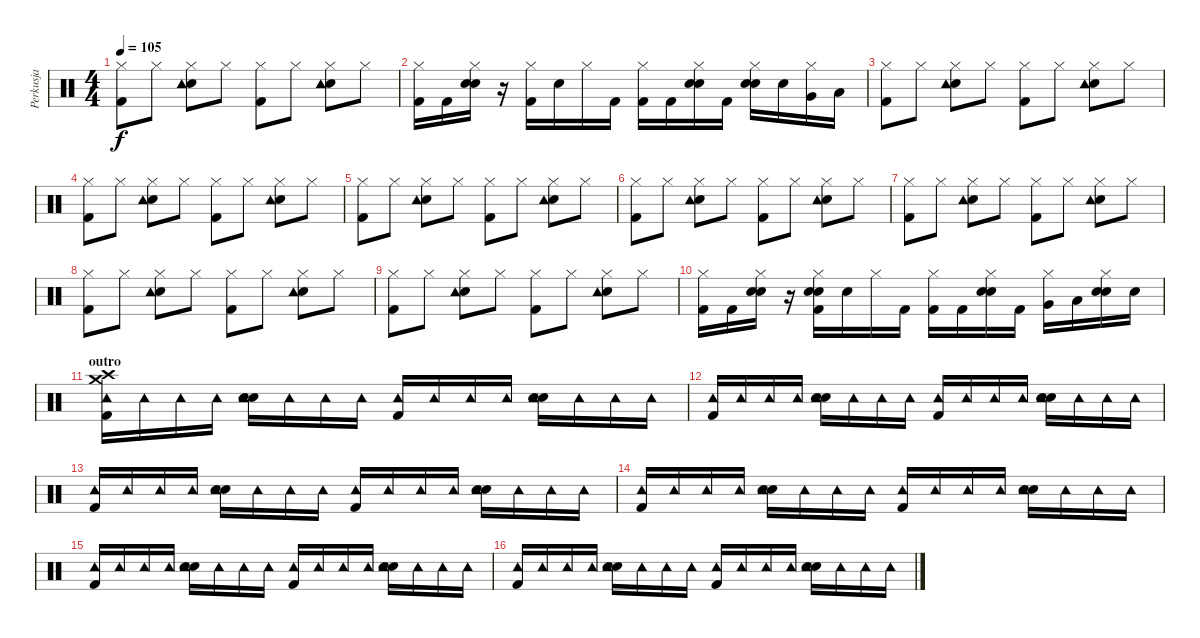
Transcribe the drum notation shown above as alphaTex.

\track ("Perkusja" "Perkusja") {instrument percussion}
\staff {score}
\articulation defaults
\ts (4 4)
\tempo 105
\clef neutral
\ks c
("Kick (hit) 2" "Hi-Hat (closed)").8{dy f} "Hi-Hat (closed)".8 ("Electric Snare (hit)" "Tambourine (hit)" "Hi-Hat (closed)").8 "Hi-Hat (closed)".8 ("Kick (hit) 2" "Hi-Hat (closed)").8 "Hi-Hat (closed)".8 ("Electric Snare (hit)" "Tambourine (hit)" "Hi-Hat (closed)").8 "Hi-Hat (closed)".8 |
("Kick (hit) 2" "Hi-Hat (closed)").16 "Kick (hit) 2".16 ("Electric Snare (hit)" "Snare (hit) 2" "Hi-Hat (closed)").16 r.16 ("Kick (hit) 2" "Hi-Hat (closed)").16 "Electric Snare (hit)".16 "Hi-Hat (closed)".16 "Kick (hit) 2".16 ("Kick (hit) 2" "Hi-Hat (closed)").16 "Kick (hit) 2".16 ("Electric Snare (hit)" "Snare (hit) 2" "Hi-Hat (closed)").16 "Kick (hit) 2".16 ("Electric Snare (hit)" "Snare (hit) 2" "Hi-Hat (closed)").16 "Electric Snare (hit)".16 ("Very Low Tom (hit)" "Hi-Hat (closed)").16 "Low Floor Tom (hit)".16 |
("Kick (hit) 2" "Hi-Hat (closed)").8 "Hi-Hat (closed)".8 ("Electric Snare (hit)" "Tambourine (hit)" "Hi-Hat (closed)").8 "Hi-Hat (closed)".8 ("Kick (hit) 2" "Hi-Hat (closed)").8 "Hi-Hat (closed)".8 ("Electric Snare (hit)" "Tambourine (hit)" "Hi-Hat (closed)").8 "Hi-Hat (closed)".8 |
("Kick (hit) 2" "Hi-Hat (closed)").8 "Hi-Hat (closed)".8 ("Electric Snare (hit)" "Tambourine (hit)" "Hi-Hat (closed)").8 "Hi-Hat (closed)".8 ("Kick (hit) 2" "Hi-Hat (closed)").8 "Hi-Hat (closed)".8 ("Electric Snare (hit)" "Tambourine (hit)" "Hi-Hat (closed)").8 "Hi-Hat (closed)".8 |
("Kick (hit) 2" "Hi-Hat (closed)").8 "Hi-Hat (closed)".8 ("Electric Snare (hit)" "Tambourine (hit)" "Hi-Hat (closed)").8 "Hi-Hat (closed)".8 ("Kick (hit) 2" "Hi-Hat (closed)").8 "Hi-Hat (closed)".8 ("Electric Snare (hit)" "Tambourine (hit)" "Hi-Hat (closed)").8 "Hi-Hat (closed)".8 |
("Kick (hit) 2" "Hi-Hat (closed)").8 "Hi-Hat (closed)".8 ("Electric Snare (hit)" "Tambourine (hit)" "Hi-Hat (closed)").8 "Hi-Hat (closed)".8 ("Kick (hit) 2" "Hi-Hat (closed)").8 "Hi-Hat (closed)".8 ("Electric Snare (hit)" "Tambourine (hit)" "Hi-Hat (closed)").8 "Hi-Hat (closed)".8 |
("Kick (hit) 2" "Hi-Hat (closed)").8 "Hi-Hat (closed)".8 ("Electric Snare (hit)" "Tambourine (hit)" "Hi-Hat (closed)").8 "Hi-Hat (closed)".8 ("Kick (hit) 2" "Hi-Hat (closed)").8 "Hi-Hat (closed)".8 ("Electric Snare (hit)" "Tambourine (hit)" "Hi-Hat (closed)").8 "Hi-Hat (closed)".8 |
("Kick (hit) 2" "Hi-Hat (closed)").8 "Hi-Hat (closed)".8 ("Electric Snare (hit)" "Tambourine (hit)" "Hi-Hat (closed)").8 "Hi-Hat (closed)".8 ("Kick (hit) 2" "Hi-Hat (closed)").8 "Hi-Hat (closed)".8 ("Electric Snare (hit)" "Tambourine (hit)" "Hi-Hat (closed)").8 "Hi-Hat (closed)".8 |
("Kick (hit) 2" "Hi-Hat (closed)").8 "Hi-Hat (closed)".8 ("Electric Snare (hit)" "Tambourine (hit)" "Hi-Hat (closed)").8 "Hi-Hat (closed)".8 ("Kick (hit) 2" "Hi-Hat (closed)").8 "Hi-Hat (closed)".8 ("Electric Snare (hit)" "Tambourine (hit)" "Hi-Hat (closed)").8 "Hi-Hat (closed)".8 |
("Kick (hit) 2" "Hi-Hat (closed)").16 "Kick (hit) 2".16 ("Electric Snare (hit)" "Snare (hit) 2" "Hi-Hat (closed)").16 r.16 ("Electric Snare (hit)" "Snare (hit) 2" "Kick (hit) 2" "Hi-Hat (closed)").16 "Electric Snare (hit)".16 "Hi-Hat (closed)".16 "Kick (hit) 2".16 ("Kick (hit) 2" "Hi-Hat (closed)").16 "Kick (hit) 2".16 ("Electric Snare (hit)" "Snare (hit) 2" "Hi-Hat (closed)").16 "Kick (hit) 2".16 ("Very Low Tom (hit)" "Hi-Hat (closed)").16 "Low Floor Tom (hit)".16 ("Electric Snare (hit)" "Snare (hit) 2" "Hi-Hat (closed)").16 "Electric Snare (hit)".16 |
\section ("" "outro")
("Crash medium (hit)" "Crash high (hit)" "Kick (hit) 2" "Tambourine (hit)").16 "Tambourine (hit)".16 "Tambourine (hit)".16 "Tambourine (hit)".16 ("Electric Snare (hit)" "Snare (hit) 2" "Tambourine (hit)").16 "Tambourine (hit)".16 "Tambourine (hit)".16 "Tambourine (hit)".16 ("Kick (hit) 2" "Tambourine (hit)").16 "Tambourine (hit)".16 "Tambourine (hit)".16 "Tambourine (hit)".16 ("Electric Snare (hit)" "Snare (hit) 2" "Tambourine (hit)").16 "Tambourine (hit)".16 "Tambourine (hit)".16 "Tambourine (hit)".16 |
("Kick (hit) 2" "Tambourine (hit)").16 "Tambourine (hit)".16 "Tambourine (hit)".16 "Tambourine (hit)".16 ("Electric Snare (hit)" "Snare (hit) 2" "Tambourine (hit)").16 "Tambourine (hit)".16 "Tambourine (hit)".16 "Tambourine (hit)".16 ("Kick (hit) 2" "Tambourine (hit)").16 "Tambourine (hit)".16 "Tambourine (hit)".16 "Tambourine (hit)".16 ("Electric Snare (hit)" "Snare (hit) 2" "Tambourine (hit)").16 "Tambourine (hit)".16 "Tambourine (hit)".16 "Tambourine (hit)".16 |
("Kick (hit) 2" "Tambourine (hit)").16 "Tambourine (hit)".16 "Tambourine (hit)".16 "Tambourine (hit)".16 ("Electric Snare (hit)" "Snare (hit) 2" "Tambourine (hit)").16 "Tambourine (hit)".16 "Tambourine (hit)".16 "Tambourine (hit)".16 ("Kick (hit) 2" "Tambourine (hit)").16 "Tambourine (hit)".16 "Tambourine (hit)".16 "Tambourine (hit)".16 ("Electric Snare (hit)" "Snare (hit) 2" "Tambourine (hit)").16 "Tambourine (hit)".16 "Tambourine (hit)".16 "Tambourine (hit)".16 |
("Kick (hit) 2" "Tambourine (hit)").16 "Tambourine (hit)".16 "Tambourine (hit)".16 "Tambourine (hit)".16 ("Electric Snare (hit)" "Snare (hit) 2" "Tambourine (hit)").16 "Tambourine (hit)".16 "Tambourine (hit)".16 "Tambourine (hit)".16 ("Kick (hit) 2" "Tambourine (hit)").16 "Tambourine (hit)".16 "Tambourine (hit)".16 "Tambourine (hit)".16 ("Electric Snare (hit)" "Snare (hit) 2" "Tambourine (hit)").16 "Tambourine (hit)".16 "Tambourine (hit)".16 "Tambourine (hit)".16 |
("Kick (hit) 2" "Tambourine (hit)").16 "Tambourine (hit)".16 "Tambourine (hit)".16 "Tambourine (hit)".16 ("Electric Snare (hit)" "Snare (hit) 2" "Tambourine (hit)").16 "Tambourine (hit)".16 "Tambourine (hit)".16 "Tambourine (hit)".16 ("Kick (hit) 2" "Tambourine (hit)").16 "Tambourine (hit)".16 "Tambourine (hit)".16 "Tambourine (hit)".16 ("Electric Snare (hit)" "Snare (hit) 2" "Tambourine (hit)").16 "Tambourine (hit)".16 "Tambourine (hit)".16 "Tambourine (hit)".16 |
("Kick (hit) 2" "Tambourine (hit)").16 "Tambourine (hit)".16 "Tambourine (hit)".16 "Tambourine (hit)".16 ("Electric Snare (hit)" "Snare (hit) 2" "Tambourine (hit)").16 "Tambourine (hit)".16 "Tambourine (hit)".16 "Tambourine (hit)".16 ("Kick (hit) 2" "Tambourine (hit)").16 "Tambourine (hit)".16 "Tambourine (hit)".16 "Tambourine (hit)".16 ("Electric Snare (hit)" "Snare (hit) 2" "Tambourine (hit)").16 "Tambourine (hit)".16 "Tambourine (hit)".16 "Tambourine (hit)".16
